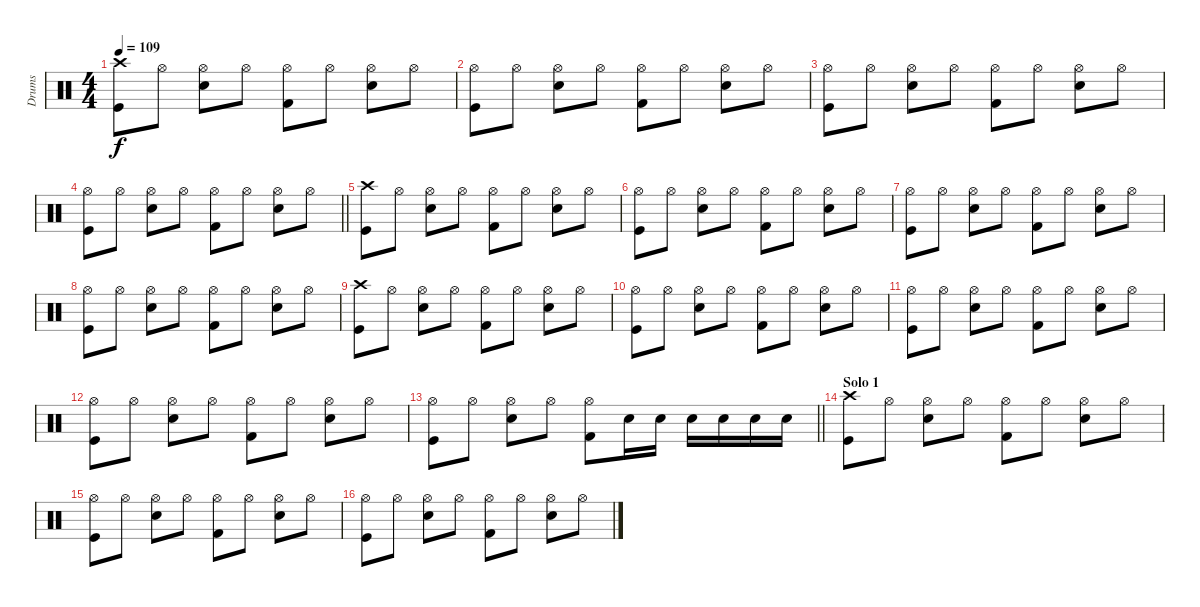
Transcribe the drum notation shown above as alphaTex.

\track ("Drums" "Drums") {instrument percussion}
\staff {score}
\articulation defaults
\ts (4 4)
\tempo 109
\clef neutral
\ks c
("Crash high (hit)" "Kick (hit)").8{dy f} "Hi-Hat (open)".8 ("Hi-Hat (open)" "Snare (hit) 2").8 "Hi-Hat (open)".8 ("Hi-Hat (open)" "Kick (hit) 2").8 "Hi-Hat (open)".8 ("Hi-Hat (open)" "Snare (hit) 2").8 "Hi-Hat (open)".8 |
("Hi-Hat (open)" "Kick (hit)").8 "Hi-Hat (open)".8 ("Hi-Hat (open)" "Snare (hit) 2").8 "Hi-Hat (open)".8 ("Hi-Hat (open)" "Kick (hit) 2").8 "Hi-Hat (open)".8 ("Hi-Hat (open)" "Snare (hit) 2").8 "Hi-Hat (open)".8 |
("Hi-Hat (open)" "Kick (hit)").8 "Hi-Hat (open)".8 ("Hi-Hat (open)" "Snare (hit) 2").8 "Hi-Hat (open)".8 ("Hi-Hat (open)" "Kick (hit) 2").8 "Hi-Hat (open)".8 ("Hi-Hat (open)" "Snare (hit) 2").8 "Hi-Hat (open)".8 |
\barLineRight lightlight
("Hi-Hat (open)" "Kick (hit)").8 "Hi-Hat (open)".8 ("Hi-Hat (open)" "Snare (hit) 2").8 "Hi-Hat (open)".8 ("Hi-Hat (open)" "Kick (hit) 2").8 "Hi-Hat (open)".8 ("Hi-Hat (open)" "Snare (hit) 2").8 "Hi-Hat (open)".8 |
("Crash high (hit)" "Kick (hit)").8 "Hi-Hat (open)".8 ("Hi-Hat (open)" "Snare (hit) 2").8 "Hi-Hat (open)".8 ("Hi-Hat (open)" "Kick (hit) 2").8 "Hi-Hat (open)".8 ("Hi-Hat (open)" "Snare (hit) 2").8 "Hi-Hat (open)".8 |
("Hi-Hat (open)" "Kick (hit)").8 "Hi-Hat (open)".8 ("Hi-Hat (open)" "Snare (hit) 2").8 "Hi-Hat (open)".8 ("Hi-Hat (open)" "Kick (hit) 2").8 "Hi-Hat (open)".8 ("Hi-Hat (open)" "Snare (hit) 2").8 "Hi-Hat (open)".8 |
("Hi-Hat (open)" "Kick (hit)").8 "Hi-Hat (open)".8 ("Hi-Hat (open)" "Snare (hit) 2").8 "Hi-Hat (open)".8 ("Hi-Hat (open)" "Kick (hit) 2").8 "Hi-Hat (open)".8 ("Hi-Hat (open)" "Snare (hit) 2").8 "Hi-Hat (open)".8 |
("Hi-Hat (open)" "Kick (hit)").8 "Hi-Hat (open)".8 ("Hi-Hat (open)" "Snare (hit) 2").8 "Hi-Hat (open)".8 ("Hi-Hat (open)" "Kick (hit) 2").8 "Hi-Hat (open)".8 ("Hi-Hat (open)" "Snare (hit) 2").8 "Hi-Hat (open)".8 |
("Crash high (hit)" "Kick (hit)").8 "Hi-Hat (open)".8 ("Hi-Hat (open)" "Snare (hit) 2").8 "Hi-Hat (open)".8 ("Hi-Hat (open)" "Kick (hit) 2").8 "Hi-Hat (open)".8 ("Hi-Hat (open)" "Snare (hit) 2").8 "Hi-Hat (open)".8 |
("Hi-Hat (open)" "Kick (hit)").8 "Hi-Hat (open)".8 ("Hi-Hat (open)" "Snare (hit) 2").8 "Hi-Hat (open)".8 ("Hi-Hat (open)" "Kick (hit) 2").8 "Hi-Hat (open)".8 ("Hi-Hat (open)" "Snare (hit) 2").8 "Hi-Hat (open)".8 |
("Hi-Hat (open)" "Kick (hit)").8 "Hi-Hat (open)".8 ("Hi-Hat (open)" "Snare (hit) 2").8 "Hi-Hat (open)".8 ("Hi-Hat (open)" "Kick (hit) 2").8 "Hi-Hat (open)".8 ("Hi-Hat (open)" "Snare (hit) 2").8 "Hi-Hat (open)".8 |
("Hi-Hat (open)" "Kick (hit)").8 "Hi-Hat (open)".8 ("Hi-Hat (open)" "Snare (hit) 2").8 "Hi-Hat (open)".8 ("Hi-Hat (open)" "Kick (hit) 2").8 "Hi-Hat (open)".8 ("Hi-Hat (open)" "Snare (hit) 2").8 "Hi-Hat (open)".8 |
\barLineRight lightlight
("Hi-Hat (open)" "Kick (hit)").8 "Hi-Hat (open)".8 ("Hi-Hat (open)" "Snare (hit) 2").8 "Hi-Hat (open)".8 ("Hi-Hat (open)" "Kick (hit) 2").8 "Snare (hit) 2".16 "Snare (hit) 2".16 "Snare (hit) 2".16 "Snare (hit) 2".16 "Snare (hit) 2".16 "Snare (hit) 2".16 |
\section ("" "Solo 1")
("Crash high (hit)" "Kick (hit)").8 "Hi-Hat (open)".8 ("Hi-Hat (open)" "Snare (hit) 2").8 "Hi-Hat (open)".8 ("Hi-Hat (open)" "Kick (hit) 2").8 "Hi-Hat (open)".8 ("Hi-Hat (open)" "Snare (hit) 2").8 "Hi-Hat (open)".8 |
("Hi-Hat (open)" "Kick (hit)").8 "Hi-Hat (open)".8 ("Hi-Hat (open)" "Snare (hit) 2").8 "Hi-Hat (open)".8 ("Hi-Hat (open)" "Kick (hit) 2").8 "Hi-Hat (open)".8 ("Hi-Hat (open)" "Snare (hit) 2").8 "Hi-Hat (open)".8 |
("Hi-Hat (open)" "Kick (hit)").8 "Hi-Hat (open)".8 ("Hi-Hat (open)" "Snare (hit) 2").8 "Hi-Hat (open)".8 ("Hi-Hat (open)" "Kick (hit) 2").8 "Hi-Hat (open)".8 ("Hi-Hat (open)" "Snare (hit) 2").8 "Hi-Hat (open)".8
